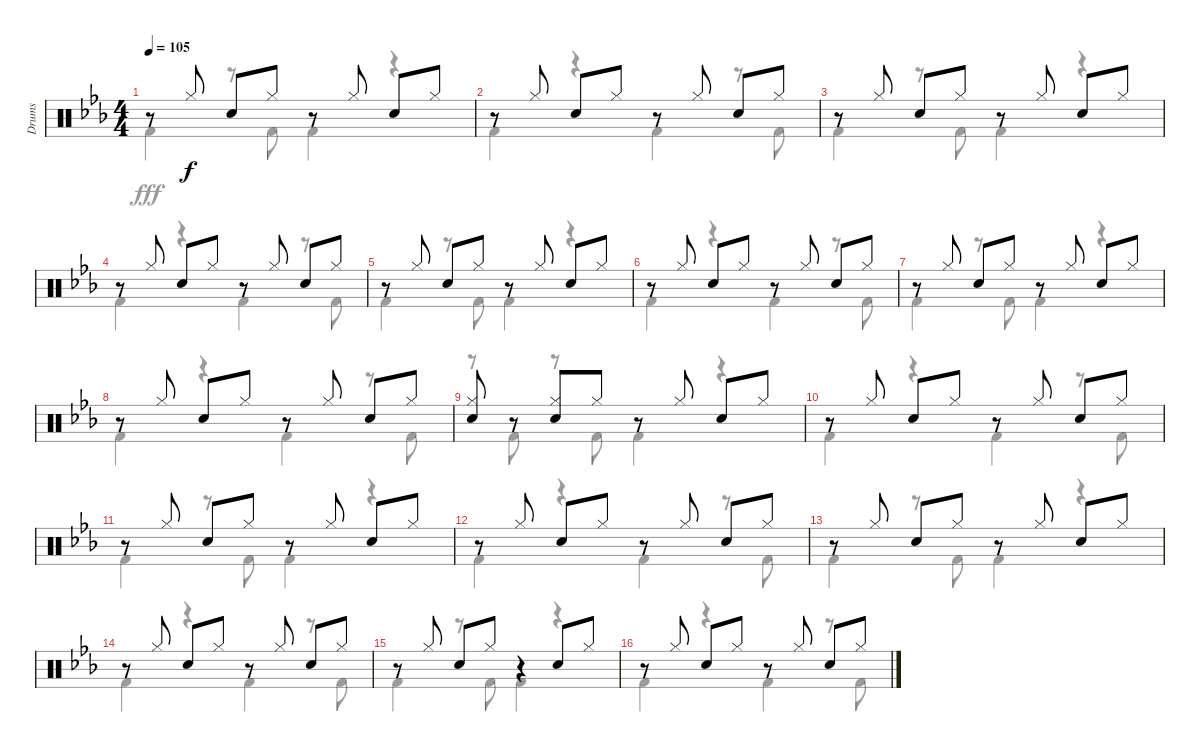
\track ("Drums" "Drums") {instrument percussion}
\staff {score}
\articulation defaults
\voice
\ts (4 4)
\tempo 105
\clef neutral
\ks eb
r.8{dy f} "Hi-Hat (closed)".8 "Snare (hit) 2".8 "Hi-Hat (closed)".8 r.8 "Hi-Hat (closed)".8 "Snare (hit) 2".8 "Hi-Hat (closed)".8 |
r.8 "Hi-Hat (closed)".8 "Snare (hit) 2".8 "Hi-Hat (closed)".8 r.8 "Hi-Hat (closed)".8 "Snare (hit) 2".8 "Hi-Hat (closed)".8 |
r.8 "Hi-Hat (closed)".8 "Snare (hit) 2".8 "Hi-Hat (closed)".8 r.8 "Hi-Hat (closed)".8 "Snare (hit) 2".8 "Hi-Hat (closed)".8 |
r.8 "Hi-Hat (closed)".8 "Snare (hit) 2".8 "Hi-Hat (closed)".8 r.8 "Hi-Hat (closed)".8 "Snare (hit) 2".8 "Hi-Hat (closed)".8 |
r.8 "Hi-Hat (closed)".8 "Snare (hit) 2".8 "Hi-Hat (closed)".8 r.8 "Hi-Hat (closed)".8 "Snare (hit) 2".8 "Hi-Hat (closed)".8 |
r.8 "Hi-Hat (closed)".8 "Snare (hit) 2".8 "Hi-Hat (closed)".8 r.8 "Hi-Hat (closed)".8 "Snare (hit) 2".8 "Hi-Hat (closed)".8 |
r.8 "Hi-Hat (closed)".8 "Snare (hit) 2".8 "Hi-Hat (closed)".8 r.8 "Hi-Hat (closed)".8 "Snare (hit) 2".8 "Hi-Hat (closed)".8 |
r.8 "Hi-Hat (closed)".8 "Snare (hit) 2".8 "Hi-Hat (closed)".8 r.8 "Hi-Hat (closed)".8 "Snare (hit) 2".8 "Hi-Hat (closed)".8 |
("Hi-Hat (closed)" "Snare (hit) 2").8 r.8 ("Hi-Hat (closed)" "Snare (hit) 2").8 "Hi-Hat (closed)".8 r.8 "Hi-Hat (closed)".8 "Snare (hit) 2".8 "Hi-Hat (closed)".8 |
r.8 "Hi-Hat (closed)".8 "Snare (hit) 2".8 "Hi-Hat (closed)".8 r.8 "Hi-Hat (closed)".8 "Snare (hit) 2".8 "Hi-Hat (closed)".8 |
r.8 "Hi-Hat (closed)".8 "Snare (hit) 2".8 "Hi-Hat (closed)".8 r.8 "Hi-Hat (closed)".8 "Snare (hit) 2".8 "Hi-Hat (closed)".8 |
r.8 "Hi-Hat (closed)".8 "Snare (hit) 2".8 "Hi-Hat (closed)".8 r.8 "Hi-Hat (closed)".8 "Snare (hit) 2".8 "Hi-Hat (closed)".8 |
r.8 "Hi-Hat (closed)".8 "Snare (hit) 2".8 "Hi-Hat (closed)".8 r.8 "Hi-Hat (closed)".8 "Snare (hit) 2".8 "Hi-Hat (closed)".8 |
r.8 "Hi-Hat (closed)".8 "Snare (hit) 2".8 "Hi-Hat (closed)".8 r.8 "Hi-Hat (closed)".8 "Snare (hit) 2".8 "Hi-Hat (closed)".8 |
r.8 "Hi-Hat (closed)".8 "Snare (hit) 2".8 "Hi-Hat (closed)".8 r.4 "Snare (hit) 2".8 "Hi-Hat (closed)".8 |
r.8 "Hi-Hat (closed)".8 "Snare (hit) 2".8 "Hi-Hat (closed)".8 r.8 "Hi-Hat (closed)".8 "Snare (hit) 2".8 "Hi-Hat (closed)".8
\voice
\clef neutral
\ottava regular
\simile none
\ks eb "Kick (hit) 2".4{dy fff}
r.8 "Kick (hit) 2".8 "Kick (hit) 2".4 r.4 |
"Kick (hit) 2".4 r.4 "Kick (hit) 2".4 r.8 "Kick (hit) 2".8 |
"Kick (hit) 2".4 r.8 "Kick (hit) 2".8 "Kick (hit) 2".4 r.4 |
"Kick (hit) 2".4 r.4 "Kick (hit) 2".4 r.8 "Kick (hit) 2".8 |
"Kick (hit) 2".4 r.8 "Kick (hit) 2".8 "Kick (hit) 2".4 r.4 |
"Kick (hit) 2".4 r.4 "Kick (hit) 2".4 r.8 "Kick (hit) 2".8 |
"Kick (hit) 2".4 r.8 "Kick (hit) 2".8 "Kick (hit) 2".4 r.4 |
"Kick (hit) 2".4 r.4 "Kick (hit) 2".4 r.8 "Kick (hit) 2".8 |
r.8 "Kick (hit) 2".8 r.8 "Kick (hit) 2".8 "Kick (hit) 2".4 r.4 |
"Kick (hit) 2".4 r.4 "Kick (hit) 2".4 r.8 "Kick (hit) 2".8 |
"Kick (hit) 2".4 r.8 "Kick (hit) 2".8 "Kick (hit) 2".4 r.4 |
"Kick (hit) 2".4 r.4 "Kick (hit) 2".4 r.8 "Kick (hit) 2".8 |
"Kick (hit) 2".4 r.8 "Kick (hit) 2".8 "Kick (hit) 2".4 r.4 |
"Kick (hit) 2".4 r.4 "Kick (hit) 2".4 r.8 "Kick (hit) 2".8 |
"Kick (hit) 2".4 r.8 "Kick (hit) 2".8 "Kick (hit) 2".4 r.4 |
"Kick (hit) 2".4 r.4 "Kick (hit) 2".4 r.8 "Kick (hit) 2".8
